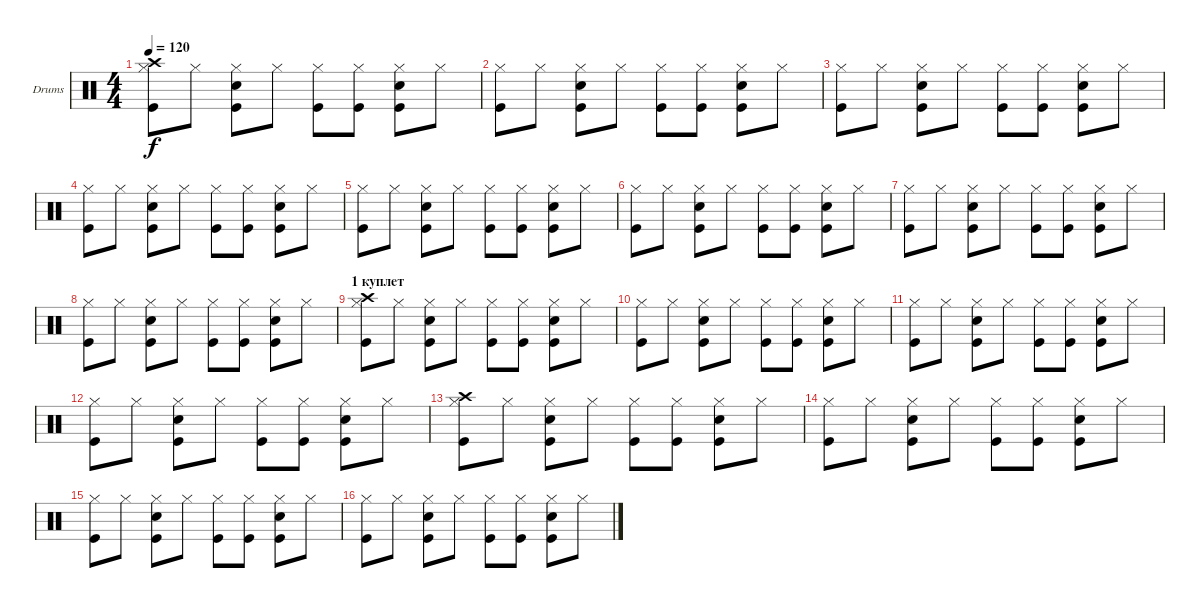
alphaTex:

\defaultSystemsLayout 4
\bracketExtendMode groupsimilarinstruments
\firstSystemTrackNameOrientation horizontal
\otherSystemsTrackNameOrientation horizontal
\track ("Drumkit" "Drums") {instrument percussion}
\staff {score}
\articulation defaults
\ts (4 4)
\tempo 120
\clef neutral
\scale
0.472222
\ks c
("Hi-Hat (closed)" "Kick (hit)" "Crash high (hit)").8{dy f} "Hi-Hat (closed)".8 ("Hi-Hat (closed)" "Snare (hit) 2" "Kick (hit)").8 "Hi-Hat (closed)".8 ("Hi-Hat (closed)" "Kick (hit)").8 ("Hi-Hat (closed)" "Kick (hit)").8 ("Hi-Hat (closed)" "Snare (hit) 2" "Kick (hit)").8 "Hi-Hat (closed)".8 |
\scale
0.263889 ("Hi-Hat (closed)" "Kick (hit)").8 "Hi-Hat (closed)".8 ("Hi-Hat (closed)" "Snare (hit) 2" "Kick (hit)").8 "Hi-Hat (closed)".8 ("Hi-Hat (closed)" "Kick (hit)").8 ("Hi-Hat (closed)" "Kick (hit)").8 ("Hi-Hat (closed)" "Snare (hit) 2" "Kick (hit)").8 "Hi-Hat (closed)".8 |
\scale
0.263889 ("Hi-Hat (closed)" "Kick (hit)").8 "Hi-Hat (closed)".8 ("Hi-Hat (closed)" "Snare (hit) 2" "Kick (hit)").8 "Hi-Hat (closed)".8 ("Hi-Hat (closed)" "Kick (hit)").8 ("Hi-Hat (closed)" "Kick (hit)").8 ("Hi-Hat (closed)" "Snare (hit) 2" "Kick (hit)").8 "Hi-Hat (closed)".8 |
\scale
0.333333 ("Hi-Hat (closed)" "Kick (hit)").8 "Hi-Hat (closed)".8 ("Hi-Hat (closed)" "Snare (hit) 2" "Kick (hit)").8 "Hi-Hat (closed)".8 ("Hi-Hat (closed)" "Kick (hit)").8 ("Hi-Hat (closed)" "Kick (hit)").8 ("Hi-Hat (closed)" "Snare (hit) 2" "Kick (hit)").8 "Hi-Hat (closed)".8 |
\scale
0.333333 ("Hi-Hat (closed)" "Kick (hit)").8 "Hi-Hat (closed)".8 ("Hi-Hat (closed)" "Snare (hit) 2" "Kick (hit)").8 "Hi-Hat (closed)".8 ("Hi-Hat (closed)" "Kick (hit)").8 ("Hi-Hat (closed)" "Kick (hit)").8 ("Hi-Hat (closed)" "Snare (hit) 2" "Kick (hit)").8 "Hi-Hat (closed)".8 |
\scale
0.333333 ("Hi-Hat (closed)" "Kick (hit)").8 "Hi-Hat (closed)".8 ("Hi-Hat (closed)" "Snare (hit) 2" "Kick (hit)").8 "Hi-Hat (closed)".8 ("Hi-Hat (closed)" "Kick (hit)").8 ("Hi-Hat (closed)" "Kick (hit)").8 ("Hi-Hat (closed)" "Snare (hit) 2" "Kick (hit)").8 "Hi-Hat (closed)".8 |
("Hi-Hat (closed)" "Kick (hit)").8 "Hi-Hat (closed)".8 ("Hi-Hat (closed)" "Snare (hit) 2" "Kick (hit)").8 "Hi-Hat (closed)".8 ("Hi-Hat (closed)" "Kick (hit)").8 ("Hi-Hat (closed)" "Kick (hit)").8 ("Hi-Hat (closed)" "Snare (hit) 2" "Kick (hit)").8 "Hi-Hat (closed)".8 |
("Hi-Hat (closed)" "Kick (hit)").8 "Hi-Hat (closed)".8 ("Hi-Hat (closed)" "Snare (hit) 2" "Kick (hit)").8 "Hi-Hat (closed)".8 ("Hi-Hat (closed)" "Kick (hit)").8 ("Hi-Hat (closed)" "Kick (hit)").8 ("Hi-Hat (closed)" "Snare (hit) 2" "Kick (hit)").8 "Hi-Hat (closed)".8 |
\section ("" "1 куплет")
("Hi-Hat (closed)" "Kick (hit)" "Crash high (hit)").8 "Hi-Hat (closed)".8 ("Hi-Hat (closed)" "Snare (hit) 2" "Kick (hit)").8 "Hi-Hat (closed)".8 ("Hi-Hat (closed)" "Kick (hit)").8 ("Hi-Hat (closed)" "Kick (hit)").8 ("Hi-Hat (closed)" "Snare (hit) 2" "Kick (hit)").8 "Hi-Hat (closed)".8 |
("Hi-Hat (closed)" "Kick (hit)").8 "Hi-Hat (closed)".8 ("Hi-Hat (closed)" "Snare (hit) 2" "Kick (hit)").8 "Hi-Hat (closed)".8 ("Hi-Hat (closed)" "Kick (hit)").8 ("Hi-Hat (closed)" "Kick (hit)").8 ("Hi-Hat (closed)" "Snare (hit) 2" "Kick (hit)").8 "Hi-Hat (closed)".8 |
("Hi-Hat (closed)" "Kick (hit)").8 "Hi-Hat (closed)".8 ("Hi-Hat (closed)" "Snare (hit) 2" "Kick (hit)").8 "Hi-Hat (closed)".8 ("Hi-Hat (closed)" "Kick (hit)").8 ("Hi-Hat (closed)" "Kick (hit)").8 ("Hi-Hat (closed)" "Snare (hit) 2" "Kick (hit)").8 "Hi-Hat (closed)".8 |
("Hi-Hat (closed)" "Kick (hit)").8 "Hi-Hat (closed)".8 ("Hi-Hat (closed)" "Snare (hit) 2" "Kick (hit)").8 "Hi-Hat (closed)".8 ("Hi-Hat (closed)" "Kick (hit)").8 ("Hi-Hat (closed)" "Kick (hit)").8 ("Hi-Hat (closed)" "Snare (hit) 2" "Kick (hit)").8 "Hi-Hat (closed)".8 |
("Hi-Hat (closed)" "Kick (hit)" "Crash high (hit)").8 "Hi-Hat (closed)".8 ("Hi-Hat (closed)" "Snare (hit) 2" "Kick (hit)").8 "Hi-Hat (closed)".8 ("Hi-Hat (closed)" "Kick (hit)").8 ("Hi-Hat (closed)" "Kick (hit)").8 ("Hi-Hat (closed)" "Snare (hit) 2" "Kick (hit)").8 "Hi-Hat (closed)".8 |
("Hi-Hat (closed)" "Kick (hit)").8 "Hi-Hat (closed)".8 ("Hi-Hat (closed)" "Snare (hit) 2" "Kick (hit)").8 "Hi-Hat (closed)".8 ("Hi-Hat (closed)" "Kick (hit)").8 ("Hi-Hat (closed)" "Kick (hit)").8 ("Hi-Hat (closed)" "Snare (hit) 2" "Kick (hit)").8 "Hi-Hat (closed)".8 |
("Hi-Hat (closed)" "Kick (hit)").8 "Hi-Hat (closed)".8 ("Hi-Hat (closed)" "Snare (hit) 2" "Kick (hit)").8 "Hi-Hat (closed)".8 ("Hi-Hat (closed)" "Kick (hit)").8 ("Hi-Hat (closed)" "Kick (hit)").8 ("Hi-Hat (closed)" "Snare (hit) 2" "Kick (hit)").8 "Hi-Hat (closed)".8 |
("Hi-Hat (closed)" "Kick (hit)").8 "Hi-Hat (closed)".8 ("Hi-Hat (closed)" "Snare (hit) 2" "Kick (hit)").8 "Hi-Hat (closed)".8 ("Hi-Hat (closed)" "Kick (hit)").8 ("Hi-Hat (closed)" "Kick (hit)").8 ("Hi-Hat (closed)" "Snare (hit) 2" "Kick (hit)").8 "Hi-Hat (closed)".8
